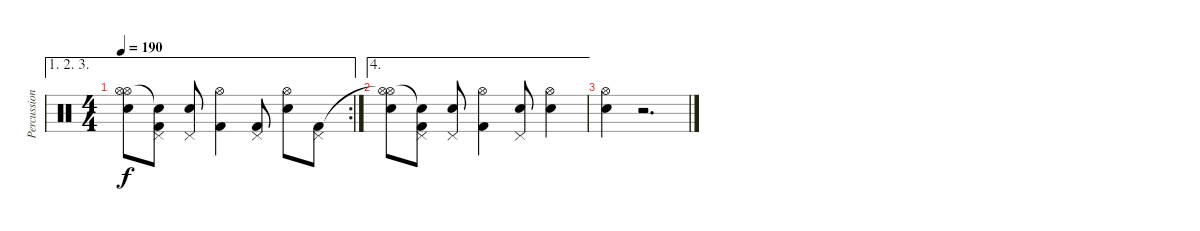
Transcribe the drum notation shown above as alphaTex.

\track ("Percussion" "Percussion") {instrument percussion}
\staff {score}
\articulation defaults
\ae (1 2 3)
\rc 2
\ts (4 4)
\tempo 190
\clef neutral
\ks c
("Hi-Hat (open)" "Hi-Hat (open)"{t} "Snare (hit) 2").8{dy f} ("Snare (hit)"{t} "Pedal Hi-Hat (hit)" "Kick (hit) 2").8 ("Pedal Hi-Hat (hit)" "Snare (hit) 2").8 ("Hi-Hat (open)" "Kick (hit) 2").4 ("Pedal Hi-Hat (hit)" "Kick (hit) 2").8 ("Hi-Hat (open)" "Snare (hit) 2").8 ("Pedal Hi-Hat (hit)" "Kick (hit) 2").8 |
\ae 4
("Hi-Hat (open)" "Hi-Hat (open)"{t} "Snare (hit) 2").8 ("Snare (hit)"{t} "Pedal Hi-Hat (hit)" "Kick (hit) 2").8 ("Pedal Hi-Hat (hit)" "Snare (hit) 2").8 ("Hi-Hat (open)" "Kick (hit) 2").4 ("Pedal Hi-Hat (hit)" "Snare (hit) 2").8 ("Hi-Hat (open)" "Snare (hit) 2").4 |
("Hi-Hat (open)" "Snare (hit) 2").4 r.2{d}
